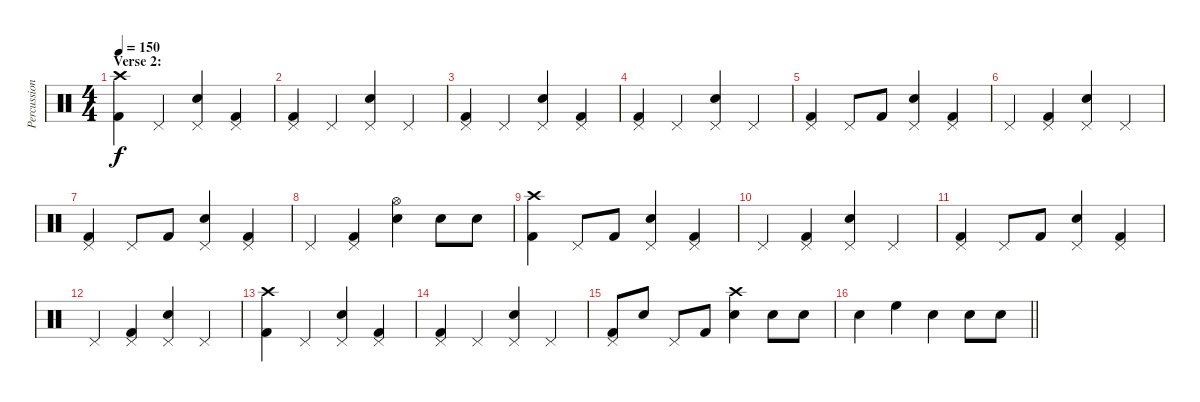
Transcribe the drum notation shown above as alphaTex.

\track ("Percussion" "Percussion") {instrument percussion}
\staff {score}
\articulation defaults
\ts (4 4)
\section ("" "Verse 2:")
\tempo 150
\clef neutral
\ks c
("Crash high (hit)" "Kick (hit) 2").4{dy f} "Pedal Hi-Hat (hit)".4 ("Pedal Hi-Hat (hit)" "Electric Snare (hit)").4 ("Pedal Hi-Hat (hit)" "Kick (hit) 2").4 |
("Pedal Hi-Hat (hit)" "Kick (hit) 2").4 "Pedal Hi-Hat (hit)".4 ("Pedal Hi-Hat (hit)" "Electric Snare (hit)").4 "Pedal Hi-Hat (hit)".4 |
("Pedal Hi-Hat (hit)" "Kick (hit) 2").4 "Pedal Hi-Hat (hit)".4 ("Pedal Hi-Hat (hit)" "Electric Snare (hit)").4 ("Pedal Hi-Hat (hit)" "Kick (hit) 2").4 |
("Pedal Hi-Hat (hit)" "Kick (hit) 2").4 "Pedal Hi-Hat (hit)".4 ("Pedal Hi-Hat (hit)" "Electric Snare (hit)").4 "Pedal Hi-Hat (hit)".4 |
("Pedal Hi-Hat (hit)" "Kick (hit) 2").4 "Pedal Hi-Hat (hit)".8 "Kick (hit) 2".8 ("Pedal Hi-Hat (hit)" "Electric Snare (hit)").4 ("Pedal Hi-Hat (hit)" "Kick (hit) 2").4 |
"Pedal Hi-Hat (hit)".4 ("Pedal Hi-Hat (hit)" "Kick (hit) 2").4 ("Pedal Hi-Hat (hit)" "Electric Snare (hit)").4 "Pedal Hi-Hat (hit)".4 |
("Pedal Hi-Hat (hit)" "Kick (hit) 2").4 "Pedal Hi-Hat (hit)".8 "Kick (hit) 2".8 ("Pedal Hi-Hat (hit)" "Electric Snare (hit)").4 ("Pedal Hi-Hat (hit)" "Kick (hit) 2").4 |
"Pedal Hi-Hat (hit)".4 ("Pedal Hi-Hat (hit)" "Kick (hit) 2").4 ("Hi-Hat (open)" "Electric Snare (hit)").4 "Electric Snare (hit)".8 "Electric Snare (hit)".8 |
("Crash high (hit)" "Kick (hit) 2").4 "Pedal Hi-Hat (hit)".8 "Kick (hit) 2".8 ("Pedal Hi-Hat (hit)" "Electric Snare (hit)").4 ("Pedal Hi-Hat (hit)" "Kick (hit) 2").4 |
"Pedal Hi-Hat (hit)".4 ("Pedal Hi-Hat (hit)" "Kick (hit) 2").4 ("Pedal Hi-Hat (hit)" "Electric Snare (hit)").4 "Pedal Hi-Hat (hit)".4 |
("Pedal Hi-Hat (hit)" "Kick (hit) 2").4 "Pedal Hi-Hat (hit)".8 "Kick (hit) 2".8 ("Pedal Hi-Hat (hit)" "Electric Snare (hit)").4 ("Pedal Hi-Hat (hit)" "Kick (hit) 2").4 |
"Pedal Hi-Hat (hit)".4 ("Pedal Hi-Hat (hit)" "Kick (hit) 2").4 ("Pedal Hi-Hat (hit)" "Electric Snare (hit)").4 "Pedal Hi-Hat (hit)".4 |
("Crash high (hit)" "Kick (hit) 2").4 "Pedal Hi-Hat (hit)".4 ("Pedal Hi-Hat (hit)" "Electric Snare (hit)").4 ("Pedal Hi-Hat (hit)" "Kick (hit) 2").4 |
("Pedal Hi-Hat (hit)" "Kick (hit) 2").4 "Pedal Hi-Hat (hit)".4 ("Pedal Hi-Hat (hit)" "Electric Snare (hit)").4 "Pedal Hi-Hat (hit)".4 |
("Pedal Hi-Hat (hit)" "Kick (hit) 2").8 "Electric Snare (hit)".8 "Pedal Hi-Hat (hit)".8 "Kick (hit) 2".8 ("Crash high (hit)" "Electric Snare (hit)").4 "Electric Snare (hit)".8 "Electric Snare (hit)".8 |
\barLineRight lightlight "Electric Snare (hit)".4 "High Floor Tom (hit)".4 "Electric Snare (hit)".4 "Electric Snare (hit)".8 "Electric Snare (hit)".8
